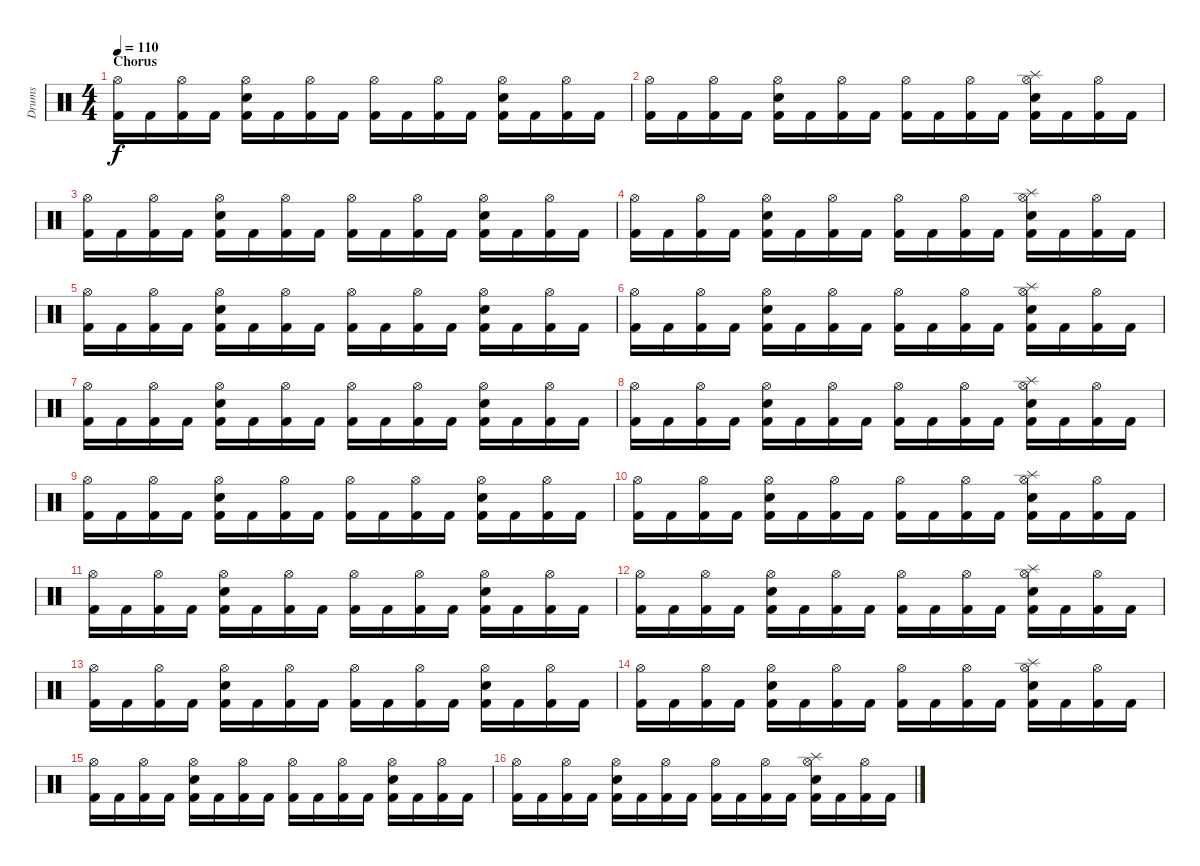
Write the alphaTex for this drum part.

\track ("Drums" "Drums") {instrument percussion}
\staff {score}
\articulation defaults
\ts (4 4)
\section ("" "Chorus")
\tempo 110
\clef neutral
\ks c
("Hi-Hat (open)" "Kick (hit) 2").16{dy f} "Kick (hit) 2".16 ("Hi-Hat (open)" "Kick (hit) 2").16 "Kick (hit) 2".16 ("Hi-Hat (open)" "Snare (hit) 2" "Kick (hit) 2").16 "Kick (hit) 2".16 ("Hi-Hat (open)" "Kick (hit) 2").16 "Kick (hit) 2".16 ("Hi-Hat (open)" "Kick (hit) 2").16 "Kick (hit) 2".16 ("Hi-Hat (open)" "Kick (hit) 2").16 "Kick (hit) 2".16 ("Hi-Hat (open)" "Snare (hit) 2" "Kick (hit) 2").16 "Kick (hit) 2".16 ("Hi-Hat (open)" "Kick (hit) 2").16 "Kick (hit) 2".16 |
("Hi-Hat (open)" "Kick (hit) 2").16 "Kick (hit) 2".16 ("Hi-Hat (open)" "Kick (hit) 2").16 "Kick (hit) 2".16 ("Hi-Hat (open)" "Snare (hit) 2" "Kick (hit) 2").16 "Kick (hit) 2".16 ("Hi-Hat (open)" "Kick (hit) 2").16 "Kick (hit) 2".16 ("Hi-Hat (open)" "Kick (hit) 2").16 "Kick (hit) 2".16 ("Hi-Hat (open)" "Kick (hit) 2").16 "Kick (hit) 2".16 ("Hi-Hat (open)" "Snare (hit) 2" "Splash (hit)" "Kick (hit) 2").16 "Kick (hit) 2".16 ("Hi-Hat (open)" "Kick (hit) 2").16 "Kick (hit) 2".16 |
("Hi-Hat (open)" "Kick (hit) 2").16 "Kick (hit) 2".16 ("Hi-Hat (open)" "Kick (hit) 2").16 "Kick (hit) 2".16 ("Hi-Hat (open)" "Snare (hit) 2" "Kick (hit) 2").16 "Kick (hit) 2".16 ("Hi-Hat (open)" "Kick (hit) 2").16 "Kick (hit) 2".16 ("Hi-Hat (open)" "Kick (hit) 2").16 "Kick (hit) 2".16 ("Hi-Hat (open)" "Kick (hit) 2").16 "Kick (hit) 2".16 ("Hi-Hat (open)" "Snare (hit) 2" "Kick (hit) 2").16 "Kick (hit) 2".16 ("Hi-Hat (open)" "Kick (hit) 2").16 "Kick (hit) 2".16 |
("Hi-Hat (open)" "Kick (hit) 2").16 "Kick (hit) 2".16 ("Hi-Hat (open)" "Kick (hit) 2").16 "Kick (hit) 2".16 ("Hi-Hat (open)" "Snare (hit) 2" "Kick (hit) 2").16 "Kick (hit) 2".16 ("Hi-Hat (open)" "Kick (hit) 2").16 "Kick (hit) 2".16 ("Hi-Hat (open)" "Kick (hit) 2").16 "Kick (hit) 2".16 ("Hi-Hat (open)" "Kick (hit) 2").16 "Kick (hit) 2".16 ("Hi-Hat (open)" "Snare (hit) 2" "Splash (hit)" "Kick (hit) 2").16 "Kick (hit) 2".16 ("Hi-Hat (open)" "Kick (hit) 2").16 "Kick (hit) 2".16 |
("Hi-Hat (open)" "Kick (hit) 2").16 "Kick (hit) 2".16 ("Hi-Hat (open)" "Kick (hit) 2").16 "Kick (hit) 2".16 ("Hi-Hat (open)" "Snare (hit) 2" "Kick (hit) 2").16 "Kick (hit) 2".16 ("Hi-Hat (open)" "Kick (hit) 2").16 "Kick (hit) 2".16 ("Hi-Hat (open)" "Kick (hit) 2").16 "Kick (hit) 2".16 ("Hi-Hat (open)" "Kick (hit) 2").16 "Kick (hit) 2".16 ("Hi-Hat (open)" "Snare (hit) 2" "Kick (hit) 2").16 "Kick (hit) 2".16 ("Hi-Hat (open)" "Kick (hit) 2").16 "Kick (hit) 2".16 |
("Hi-Hat (open)" "Kick (hit) 2").16 "Kick (hit) 2".16 ("Hi-Hat (open)" "Kick (hit) 2").16 "Kick (hit) 2".16 ("Hi-Hat (open)" "Snare (hit) 2" "Kick (hit) 2").16 "Kick (hit) 2".16 ("Hi-Hat (open)" "Kick (hit) 2").16 "Kick (hit) 2".16 ("Hi-Hat (open)" "Kick (hit) 2").16 "Kick (hit) 2".16 ("Hi-Hat (open)" "Kick (hit) 2").16 "Kick (hit) 2".16 ("Hi-Hat (open)" "Snare (hit) 2" "Splash (hit)" "Kick (hit) 2").16 "Kick (hit) 2".16 ("Hi-Hat (open)" "Kick (hit) 2").16 "Kick (hit) 2".16 |
("Hi-Hat (open)" "Kick (hit) 2").16 "Kick (hit) 2".16 ("Hi-Hat (open)" "Kick (hit) 2").16 "Kick (hit) 2".16 ("Hi-Hat (open)" "Snare (hit) 2" "Kick (hit) 2").16 "Kick (hit) 2".16 ("Hi-Hat (open)" "Kick (hit) 2").16 "Kick (hit) 2".16 ("Hi-Hat (open)" "Kick (hit) 2").16 "Kick (hit) 2".16 ("Hi-Hat (open)" "Kick (hit) 2").16 "Kick (hit) 2".16 ("Hi-Hat (open)" "Snare (hit) 2" "Kick (hit) 2").16 "Kick (hit) 2".16 ("Hi-Hat (open)" "Kick (hit) 2").16 "Kick (hit) 2".16 |
("Hi-Hat (open)" "Kick (hit) 2").16 "Kick (hit) 2".16 ("Hi-Hat (open)" "Kick (hit) 2").16 "Kick (hit) 2".16 ("Hi-Hat (open)" "Snare (hit) 2" "Kick (hit) 2").16 "Kick (hit) 2".16 ("Hi-Hat (open)" "Kick (hit) 2").16 "Kick (hit) 2".16 ("Hi-Hat (open)" "Kick (hit) 2").16 "Kick (hit) 2".16 ("Hi-Hat (open)" "Kick (hit) 2").16 "Kick (hit) 2".16 ("Hi-Hat (open)" "Snare (hit) 2" "Splash (hit)" "Kick (hit) 2").16 "Kick (hit) 2".16 ("Hi-Hat (open)" "Kick (hit) 2").16 "Kick (hit) 2".16 |
("Hi-Hat (open)" "Kick (hit) 2").16 "Kick (hit) 2".16 ("Hi-Hat (open)" "Kick (hit) 2").16 "Kick (hit) 2".16 ("Hi-Hat (open)" "Snare (hit) 2" "Kick (hit) 2").16 "Kick (hit) 2".16 ("Hi-Hat (open)" "Kick (hit) 2").16 "Kick (hit) 2".16 ("Hi-Hat (open)" "Kick (hit) 2").16 "Kick (hit) 2".16 ("Hi-Hat (open)" "Kick (hit) 2").16 "Kick (hit) 2".16 ("Hi-Hat (open)" "Snare (hit) 2" "Kick (hit) 2").16 "Kick (hit) 2".16 ("Hi-Hat (open)" "Kick (hit) 2").16 "Kick (hit) 2".16 |
("Hi-Hat (open)" "Kick (hit) 2").16 "Kick (hit) 2".16 ("Hi-Hat (open)" "Kick (hit) 2").16 "Kick (hit) 2".16 ("Hi-Hat (open)" "Snare (hit) 2" "Kick (hit) 2").16 "Kick (hit) 2".16 ("Hi-Hat (open)" "Kick (hit) 2").16 "Kick (hit) 2".16 ("Hi-Hat (open)" "Kick (hit) 2").16 "Kick (hit) 2".16 ("Hi-Hat (open)" "Kick (hit) 2").16 "Kick (hit) 2".16 ("Hi-Hat (open)" "Snare (hit) 2" "Splash (hit)" "Kick (hit) 2").16 "Kick (hit) 2".16 ("Hi-Hat (open)" "Kick (hit) 2").16 "Kick (hit) 2".16 |
("Hi-Hat (open)" "Kick (hit) 2").16 "Kick (hit) 2".16 ("Hi-Hat (open)" "Kick (hit) 2").16 "Kick (hit) 2".16 ("Hi-Hat (open)" "Snare (hit) 2" "Kick (hit) 2").16 "Kick (hit) 2".16 ("Hi-Hat (open)" "Kick (hit) 2").16 "Kick (hit) 2".16 ("Hi-Hat (open)" "Kick (hit) 2").16 "Kick (hit) 2".16 ("Hi-Hat (open)" "Kick (hit) 2").16 "Kick (hit) 2".16 ("Hi-Hat (open)" "Snare (hit) 2" "Kick (hit) 2").16 "Kick (hit) 2".16 ("Hi-Hat (open)" "Kick (hit) 2").16 "Kick (hit) 2".16 |
("Hi-Hat (open)" "Kick (hit) 2").16 "Kick (hit) 2".16 ("Hi-Hat (open)" "Kick (hit) 2").16 "Kick (hit) 2".16 ("Hi-Hat (open)" "Snare (hit) 2" "Kick (hit) 2").16 "Kick (hit) 2".16 ("Hi-Hat (open)" "Kick (hit) 2").16 "Kick (hit) 2".16 ("Hi-Hat (open)" "Kick (hit) 2").16 "Kick (hit) 2".16 ("Hi-Hat (open)" "Kick (hit) 2").16 "Kick (hit) 2".16 ("Hi-Hat (open)" "Snare (hit) 2" "Splash (hit)" "Kick (hit) 2").16 "Kick (hit) 2".16 ("Hi-Hat (open)" "Kick (hit) 2").16 "Kick (hit) 2".16 |
("Hi-Hat (open)" "Kick (hit) 2").16 "Kick (hit) 2".16 ("Hi-Hat (open)" "Kick (hit) 2").16 "Kick (hit) 2".16 ("Hi-Hat (open)" "Snare (hit) 2" "Kick (hit) 2").16 "Kick (hit) 2".16 ("Hi-Hat (open)" "Kick (hit) 2").16 "Kick (hit) 2".16 ("Hi-Hat (open)" "Kick (hit) 2").16 "Kick (hit) 2".16 ("Hi-Hat (open)" "Kick (hit) 2").16 "Kick (hit) 2".16 ("Hi-Hat (open)" "Snare (hit) 2" "Kick (hit) 2").16 "Kick (hit) 2".16 ("Hi-Hat (open)" "Kick (hit) 2").16 "Kick (hit) 2".16 |
("Hi-Hat (open)" "Kick (hit) 2").16 "Kick (hit) 2".16 ("Hi-Hat (open)" "Kick (hit) 2").16 "Kick (hit) 2".16 ("Hi-Hat (open)" "Snare (hit) 2" "Kick (hit) 2").16 "Kick (hit) 2".16 ("Hi-Hat (open)" "Kick (hit) 2").16 "Kick (hit) 2".16 ("Hi-Hat (open)" "Kick (hit) 2").16 "Kick (hit) 2".16 ("Hi-Hat (open)" "Kick (hit) 2").16 "Kick (hit) 2".16 ("Hi-Hat (open)" "Snare (hit) 2" "Splash (hit)" "Kick (hit) 2").16 "Kick (hit) 2".16 ("Hi-Hat (open)" "Kick (hit) 2").16 "Kick (hit) 2".16 |
("Hi-Hat (open)" "Kick (hit) 2").16 "Kick (hit) 2".16 ("Hi-Hat (open)" "Kick (hit) 2").16 "Kick (hit) 2".16 ("Hi-Hat (open)" "Snare (hit) 2" "Kick (hit) 2").16 "Kick (hit) 2".16 ("Hi-Hat (open)" "Kick (hit) 2").16 "Kick (hit) 2".16 ("Hi-Hat (open)" "Kick (hit) 2").16 "Kick (hit) 2".16 ("Hi-Hat (open)" "Kick (hit) 2").16 "Kick (hit) 2".16 ("Hi-Hat (open)" "Snare (hit) 2" "Kick (hit) 2").16 "Kick (hit) 2".16 ("Hi-Hat (open)" "Kick (hit) 2").16 "Kick (hit) 2".16 |
("Hi-Hat (open)" "Kick (hit) 2").16 "Kick (hit) 2".16 ("Hi-Hat (open)" "Kick (hit) 2").16 "Kick (hit) 2".16 ("Hi-Hat (open)" "Snare (hit) 2" "Kick (hit) 2").16 "Kick (hit) 2".16 ("Hi-Hat (open)" "Kick (hit) 2").16 "Kick (hit) 2".16 ("Hi-Hat (open)" "Kick (hit) 2").16 "Kick (hit) 2".16 ("Hi-Hat (open)" "Kick (hit) 2").16 "Kick (hit) 2".16 ("Hi-Hat (open)" "Snare (hit) 2" "Splash (hit)" "Kick (hit) 2").16 "Kick (hit) 2".16 ("Hi-Hat (open)" "Kick (hit) 2").16 "Kick (hit) 2".16
